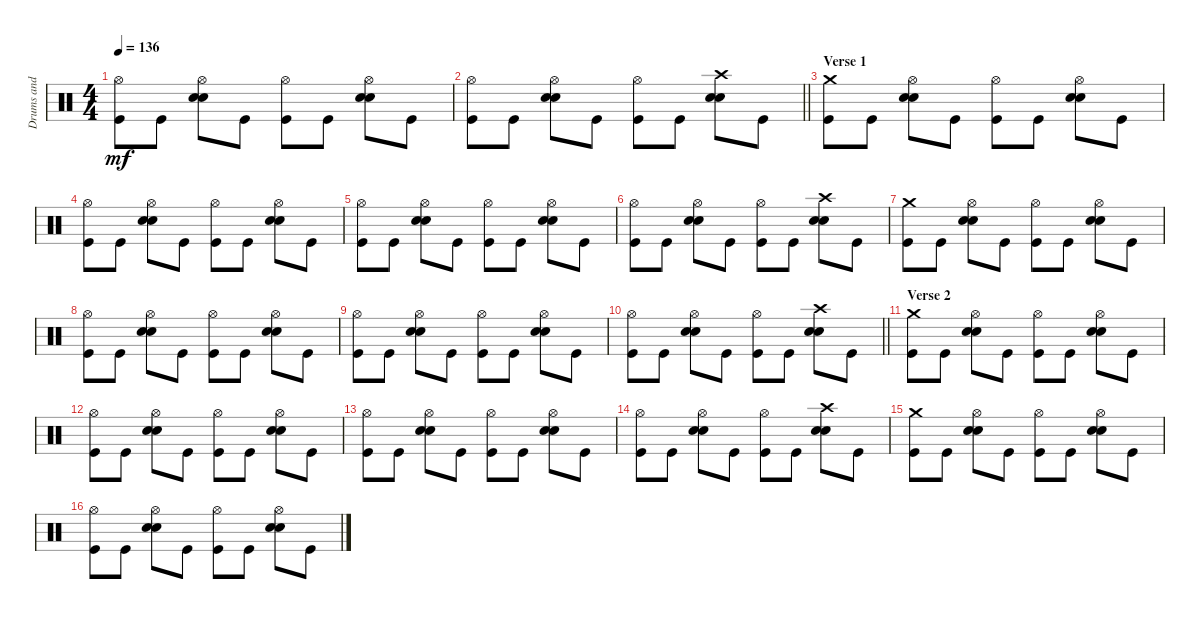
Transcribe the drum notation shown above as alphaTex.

\track ("Drums and Percussions" "Drums and ") {instrument percussion}
\staff {score}
\articulation defaults
\ts (4 4)
\tempo 136
\clef neutral
\ks c
("Hi-Hat (open)" "Kick (hit)").8{dy mf} "Kick (hit)".8 ("Hi-Hat (open)" "Electric Snare (hit)" "Electric Snare (hit)").8 "Kick (hit)".8 ("Hi-Hat (open)" "Kick (hit)").8 "Kick (hit)".8 ("Hi-Hat (open)" "Electric Snare (hit)" "Electric Snare (hit)").8 "Kick (hit)".8 |
\barLineRight lightlight
("Hi-Hat (open)" "Kick (hit)").8 "Kick (hit)".8 ("Hi-Hat (open)" "Electric Snare (hit)" "Electric Snare (hit)").8 "Kick (hit)".8 ("Hi-Hat (open)" "Kick (hit)").8 "Kick (hit)".8 ("Crash high (hit)" "Electric Snare (hit)" "Electric Snare (hit)").8 "Kick (hit)".8 |
\section ("" "Verse 1")
("Crash medium (hit)" "Kick (hit)").8 "Kick (hit)".8 ("Hi-Hat (open)" "Electric Snare (hit)" "Electric Snare (hit)").8 "Kick (hit)".8 ("Hi-Hat (open)" "Kick (hit)").8 "Kick (hit)".8 ("Hi-Hat (open)" "Electric Snare (hit)" "Electric Snare (hit)").8 "Kick (hit)".8 |
("Hi-Hat (open)" "Kick (hit)").8 "Kick (hit)".8 ("Hi-Hat (open)" "Electric Snare (hit)" "Electric Snare (hit)").8 "Kick (hit)".8 ("Hi-Hat (open)" "Kick (hit)").8 "Kick (hit)".8 ("Hi-Hat (open)" "Electric Snare (hit)" "Electric Snare (hit)").8 "Kick (hit)".8 |
("Hi-Hat (open)" "Kick (hit)").8 "Kick (hit)".8 ("Hi-Hat (open)" "Electric Snare (hit)" "Electric Snare (hit)").8 "Kick (hit)".8 ("Hi-Hat (open)" "Kick (hit)").8 "Kick (hit)".8 ("Hi-Hat (open)" "Electric Snare (hit)" "Electric Snare (hit)").8 "Kick (hit)".8 |
("Hi-Hat (open)" "Kick (hit)").8 "Kick (hit)".8 ("Hi-Hat (open)" "Electric Snare (hit)" "Electric Snare (hit)").8 "Kick (hit)".8 ("Hi-Hat (open)" "Kick (hit)").8 "Kick (hit)".8 ("Crash high (hit)" "Electric Snare (hit)" "Electric Snare (hit)").8 "Kick (hit)".8 |
("Crash medium (hit)" "Kick (hit)").8 "Kick (hit)".8 ("Hi-Hat (open)" "Electric Snare (hit)" "Electric Snare (hit)").8 "Kick (hit)".8 ("Hi-Hat (open)" "Kick (hit)").8 "Kick (hit)".8 ("Hi-Hat (open)" "Electric Snare (hit)" "Electric Snare (hit)").8 "Kick (hit)".8 |
("Hi-Hat (open)" "Kick (hit)").8 "Kick (hit)".8 ("Hi-Hat (open)" "Electric Snare (hit)" "Electric Snare (hit)").8 "Kick (hit)".8 ("Hi-Hat (open)" "Kick (hit)").8 "Kick (hit)".8 ("Hi-Hat (open)" "Electric Snare (hit)" "Electric Snare (hit)").8 "Kick (hit)".8 |
("Hi-Hat (open)" "Kick (hit)").8 "Kick (hit)".8 ("Hi-Hat (open)" "Electric Snare (hit)" "Electric Snare (hit)").8 "Kick (hit)".8 ("Hi-Hat (open)" "Kick (hit)").8 "Kick (hit)".8 ("Hi-Hat (open)" "Electric Snare (hit)" "Electric Snare (hit)").8 "Kick (hit)".8 |
\barLineRight lightlight
("Hi-Hat (open)" "Kick (hit)").8 "Kick (hit)".8 ("Hi-Hat (open)" "Electric Snare (hit)" "Electric Snare (hit)").8 "Kick (hit)".8 ("Hi-Hat (open)" "Kick (hit)").8 "Kick (hit)".8 ("Crash high (hit)" "Electric Snare (hit)" "Electric Snare (hit)").8 "Kick (hit)".8 |
\section ("" "Verse 2")
("Crash medium (hit)" "Kick (hit)").8 "Kick (hit)".8 ("Hi-Hat (open)" "Electric Snare (hit)" "Electric Snare (hit)").8 "Kick (hit)".8 ("Hi-Hat (open)" "Kick (hit)").8 "Kick (hit)".8 ("Hi-Hat (open)" "Electric Snare (hit)" "Electric Snare (hit)").8 "Kick (hit)".8 |
("Hi-Hat (open)" "Kick (hit)").8 "Kick (hit)".8 ("Hi-Hat (open)" "Electric Snare (hit)" "Electric Snare (hit)").8 "Kick (hit)".8 ("Hi-Hat (open)" "Kick (hit)").8 "Kick (hit)".8 ("Hi-Hat (open)" "Electric Snare (hit)" "Electric Snare (hit)").8 "Kick (hit)".8 |
("Hi-Hat (open)" "Kick (hit)").8 "Kick (hit)".8 ("Hi-Hat (open)" "Electric Snare (hit)" "Electric Snare (hit)").8 "Kick (hit)".8 ("Hi-Hat (open)" "Kick (hit)").8 "Kick (hit)".8 ("Hi-Hat (open)" "Electric Snare (hit)" "Electric Snare (hit)").8 "Kick (hit)".8 |
("Hi-Hat (open)" "Kick (hit)").8 "Kick (hit)".8 ("Hi-Hat (open)" "Electric Snare (hit)" "Electric Snare (hit)").8 "Kick (hit)".8 ("Hi-Hat (open)" "Kick (hit)").8 "Kick (hit)".8 ("Crash high (hit)" "Electric Snare (hit)" "Electric Snare (hit)").8 "Kick (hit)".8 |
("Crash medium (hit)" "Kick (hit)").8 "Kick (hit)".8 ("Hi-Hat (open)" "Electric Snare (hit)" "Electric Snare (hit)").8 "Kick (hit)".8 ("Hi-Hat (open)" "Kick (hit)").8 "Kick (hit)".8 ("Hi-Hat (open)" "Electric Snare (hit)" "Electric Snare (hit)").8 "Kick (hit)".8 |
("Hi-Hat (open)" "Kick (hit)").8 "Kick (hit)".8 ("Hi-Hat (open)" "Electric Snare (hit)" "Electric Snare (hit)").8 "Kick (hit)".8 ("Hi-Hat (open)" "Kick (hit)").8 "Kick (hit)".8 ("Hi-Hat (open)" "Electric Snare (hit)" "Electric Snare (hit)").8 "Kick (hit)".8
